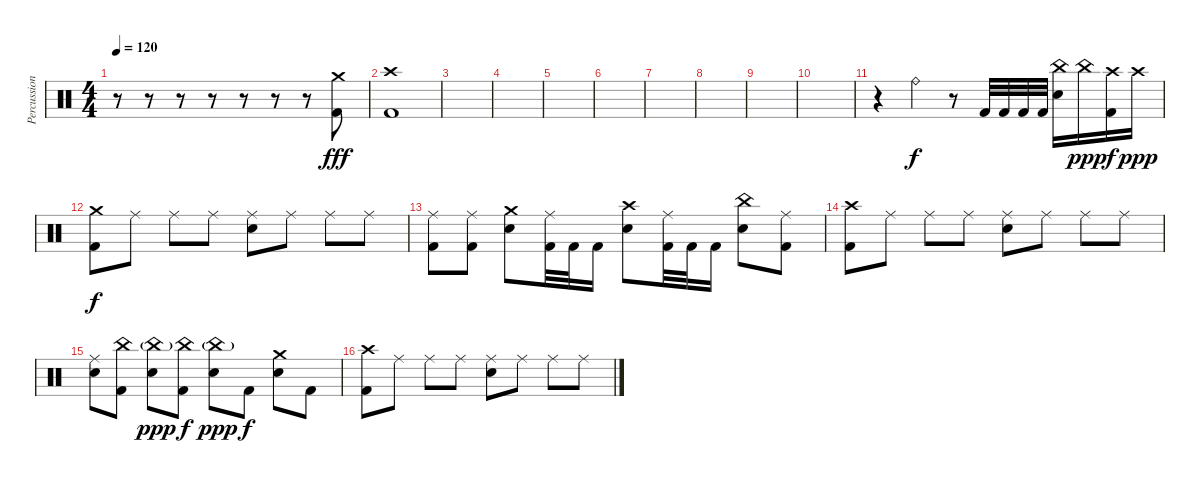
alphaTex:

\track ("Percussion" "Percussion") {instrument percussion}
\staff {score}
\articulation defaults
\ts (4 4)
\tempo 120
\clef neutral
\ks c
r.8{dy f} r.8 r.8 r.8 r.8 r.8 r.8 ("Crash medium (hit)" "Kick (hit) 2").8{dy fff} |
("Crash high (hit)" "Kick (hit) 2").1 |
|
|
|
|
|
|
|
|
r.4 "Ride (bell)".4{dy f} r.8 "Kick (hit) 2".32 "Kick (hit) 2".32 "Kick (hit) 2".32 "Kick (hit) 2".32 ("China (hit)" "Electric Snare (hit)").16 "China (hit)".16{dy ppp} ("Crash high (hit)" "Kick (hit) 2").16{dy f} "Crash high (hit)".16{dy ppp} |
("Crash medium (hit)" "Kick (hit) 2").8{dy f} "Ride (middle)".8 "Ride (middle)".8 "Ride (middle)".8 ("Ride (middle)" "Electric Snare (hit)").8 "Ride (middle)".8 "Ride (middle)".8 "Ride (middle)".8 |
("Ride (middle)" "Kick (hit) 2").8 ("Ride (middle)" "Kick (hit) 2").8 ("Crash medium (hit)" "Electric Snare (hit)").8 ("Ride (middle)" "Kick (hit) 2").32 "Kick (hit) 2".32 "Kick (hit) 2".16 ("Crash high (hit)" "Electric Snare (hit)").8 ("Ride (middle)" "Kick (hit) 2").32 "Kick (hit) 2".32 "Kick (hit) 2".16 ("China (hit)" "Electric Snare (hit)").8 ("Ride (middle)" "Kick (hit) 2").8 |
("Crash high (hit)" "Kick (hit) 2").8 "Ride (middle)".8 "Ride (middle)".8 "Ride (middle)".8 ("Ride (middle)" "Electric Snare (hit)").8 "Ride (middle)".8 "Ride (middle)".8 "Ride (middle)".8 |
("Ride (middle)" "Electric Snare (hit)").8 ("China (hit)" "Kick (hit) 2").8 ("China (hit)"{g} "Electric Snare (hit)").8{dy ppp} ("China (hit)" "Kick (hit) 2").8{dy f} ("China (hit)"{g} "Electric Snare (hit)").8{dy ppp} "Kick (hit) 2".8{dy f} ("Crash medium (hit)" "Electric Snare (hit)").8 "Kick (hit) 2".8 |
("Crash high (hit)" "Kick (hit) 2").8 "Ride (middle)".8 "Ride (middle)".8 "Ride (middle)".8 ("Ride (middle)" "Electric Snare (hit)").8 "Ride (middle)".8 "Ride (middle)".8 "Ride (middle)".8
